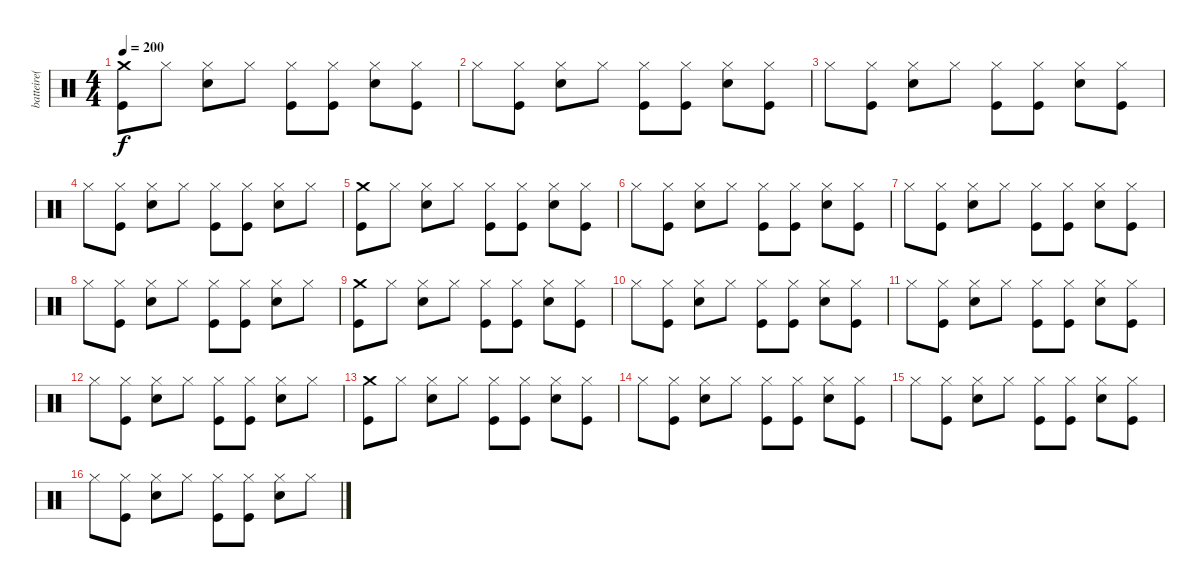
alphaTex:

\track ("batteire( Danny Alaro )" "batteire( ") {instrument percussion}
\staff {score}
\articulation defaults
\ts (4 4)
\tempo 200
\clef neutral
\ks c
("Crash medium (hit)" "Kick (hit)").8{dy f} "Hi-Hat (closed)".8 ("Hi-Hat (closed)" "Snare (hit) 2").8 "Hi-Hat (closed)".8 ("Hi-Hat (closed)" "Kick (hit)").8 ("Hi-Hat (closed)" "Kick (hit)").8 ("Hi-Hat (closed)" "Snare (hit) 2").8 ("Hi-Hat (closed)" "Kick (hit)").8 |
"Hi-Hat (closed)".8 ("Hi-Hat (closed)" "Kick (hit)").8 ("Hi-Hat (closed)" "Snare (hit) 2").8 "Hi-Hat (closed)".8 ("Hi-Hat (closed)" "Kick (hit)").8 ("Hi-Hat (closed)" "Kick (hit)").8 ("Hi-Hat (closed)" "Snare (hit) 2").8 ("Hi-Hat (closed)" "Kick (hit)").8 |
"Hi-Hat (closed)".8 ("Hi-Hat (closed)" "Kick (hit)").8 ("Hi-Hat (closed)" "Snare (hit) 2").8 "Hi-Hat (closed)".8 ("Hi-Hat (closed)" "Kick (hit)").8 ("Hi-Hat (closed)" "Kick (hit)").8 ("Hi-Hat (closed)" "Snare (hit) 2").8 ("Hi-Hat (closed)" "Kick (hit)").8 |
"Hi-Hat (closed)".8 ("Hi-Hat (closed)" "Kick (hit)").8 ("Hi-Hat (closed)" "Snare (hit) 2").8 "Hi-Hat (closed)".8 ("Hi-Hat (closed)" "Kick (hit)").8 ("Hi-Hat (closed)" "Kick (hit)").8 ("Hi-Hat (closed)" "Snare (hit) 2").8 "Hi-Hat (closed)".8 |
("Crash medium (hit)" "Kick (hit)").8 "Hi-Hat (closed)".8 ("Hi-Hat (closed)" "Snare (hit) 2").8 "Hi-Hat (closed)".8 ("Hi-Hat (closed)" "Kick (hit)").8 ("Hi-Hat (closed)" "Kick (hit)").8 ("Hi-Hat (closed)" "Snare (hit) 2").8 ("Hi-Hat (closed)" "Kick (hit)").8 |
"Hi-Hat (closed)".8 ("Hi-Hat (closed)" "Kick (hit)").8 ("Hi-Hat (closed)" "Snare (hit) 2").8 "Hi-Hat (closed)".8 ("Hi-Hat (closed)" "Kick (hit)").8 ("Hi-Hat (closed)" "Kick (hit)").8 ("Hi-Hat (closed)" "Snare (hit) 2").8 ("Hi-Hat (closed)" "Kick (hit)").8 |
"Hi-Hat (closed)".8 ("Hi-Hat (closed)" "Kick (hit)").8 ("Hi-Hat (closed)" "Snare (hit) 2").8 "Hi-Hat (closed)".8 ("Hi-Hat (closed)" "Kick (hit)").8 ("Hi-Hat (closed)" "Kick (hit)").8 ("Hi-Hat (closed)" "Snare (hit) 2").8 ("Hi-Hat (closed)" "Kick (hit)").8 |
"Hi-Hat (closed)".8 ("Hi-Hat (closed)" "Kick (hit)").8 ("Hi-Hat (closed)" "Snare (hit) 2").8 "Hi-Hat (closed)".8 ("Hi-Hat (closed)" "Kick (hit)").8 ("Hi-Hat (closed)" "Kick (hit)").8 ("Hi-Hat (closed)" "Snare (hit) 2").8 "Hi-Hat (closed)".8 |
("Crash medium (hit)" "Kick (hit)").8 "Hi-Hat (closed)".8 ("Hi-Hat (closed)" "Snare (hit) 2").8 "Hi-Hat (closed)".8 ("Hi-Hat (closed)" "Kick (hit)").8 ("Hi-Hat (closed)" "Kick (hit)").8 ("Hi-Hat (closed)" "Snare (hit) 2").8 ("Hi-Hat (closed)" "Kick (hit)").8 |
"Hi-Hat (closed)".8 ("Hi-Hat (closed)" "Kick (hit)").8 ("Hi-Hat (closed)" "Snare (hit) 2").8 "Hi-Hat (closed)".8 ("Hi-Hat (closed)" "Kick (hit)").8 ("Hi-Hat (closed)" "Kick (hit)").8 ("Hi-Hat (closed)" "Snare (hit) 2").8 ("Hi-Hat (closed)" "Kick (hit)").8 |
"Hi-Hat (closed)".8 ("Hi-Hat (closed)" "Kick (hit)").8 ("Hi-Hat (closed)" "Snare (hit) 2").8 "Hi-Hat (closed)".8 ("Hi-Hat (closed)" "Kick (hit)").8 ("Hi-Hat (closed)" "Kick (hit)").8 ("Hi-Hat (closed)" "Snare (hit) 2").8 ("Hi-Hat (closed)" "Kick (hit)").8 |
"Hi-Hat (closed)".8 ("Hi-Hat (closed)" "Kick (hit)").8 ("Hi-Hat (closed)" "Snare (hit) 2").8 "Hi-Hat (closed)".8 ("Hi-Hat (closed)" "Kick (hit)").8 ("Hi-Hat (closed)" "Kick (hit)").8 ("Hi-Hat (closed)" "Snare (hit) 2").8 "Hi-Hat (closed)".8 |
("Crash medium (hit)" "Kick (hit)").8 "Hi-Hat (closed)".8 ("Hi-Hat (closed)" "Snare (hit) 2").8 "Hi-Hat (closed)".8 ("Hi-Hat (closed)" "Kick (hit)").8 ("Hi-Hat (closed)" "Kick (hit)").8 ("Hi-Hat (closed)" "Snare (hit) 2").8 ("Hi-Hat (closed)" "Kick (hit)").8 |
"Hi-Hat (closed)".8 ("Hi-Hat (closed)" "Kick (hit)").8 ("Hi-Hat (closed)" "Snare (hit) 2").8 "Hi-Hat (closed)".8 ("Hi-Hat (closed)" "Kick (hit)").8 ("Hi-Hat (closed)" "Kick (hit)").8 ("Hi-Hat (closed)" "Snare (hit) 2").8 ("Hi-Hat (closed)" "Kick (hit)").8 |
"Hi-Hat (closed)".8 ("Hi-Hat (closed)" "Kick (hit)").8 ("Hi-Hat (closed)" "Snare (hit) 2").8 "Hi-Hat (closed)".8 ("Hi-Hat (closed)" "Kick (hit)").8 ("Hi-Hat (closed)" "Kick (hit)").8 ("Hi-Hat (closed)" "Snare (hit) 2").8 ("Hi-Hat (closed)" "Kick (hit)").8 |
"Hi-Hat (closed)".8 ("Hi-Hat (closed)" "Kick (hit)").8 ("Hi-Hat (closed)" "Snare (hit) 2").8 "Hi-Hat (closed)".8 ("Hi-Hat (closed)" "Kick (hit)").8 ("Hi-Hat (closed)" "Kick (hit)").8 ("Hi-Hat (closed)" "Snare (hit) 2").8 "Hi-Hat (closed)".8
